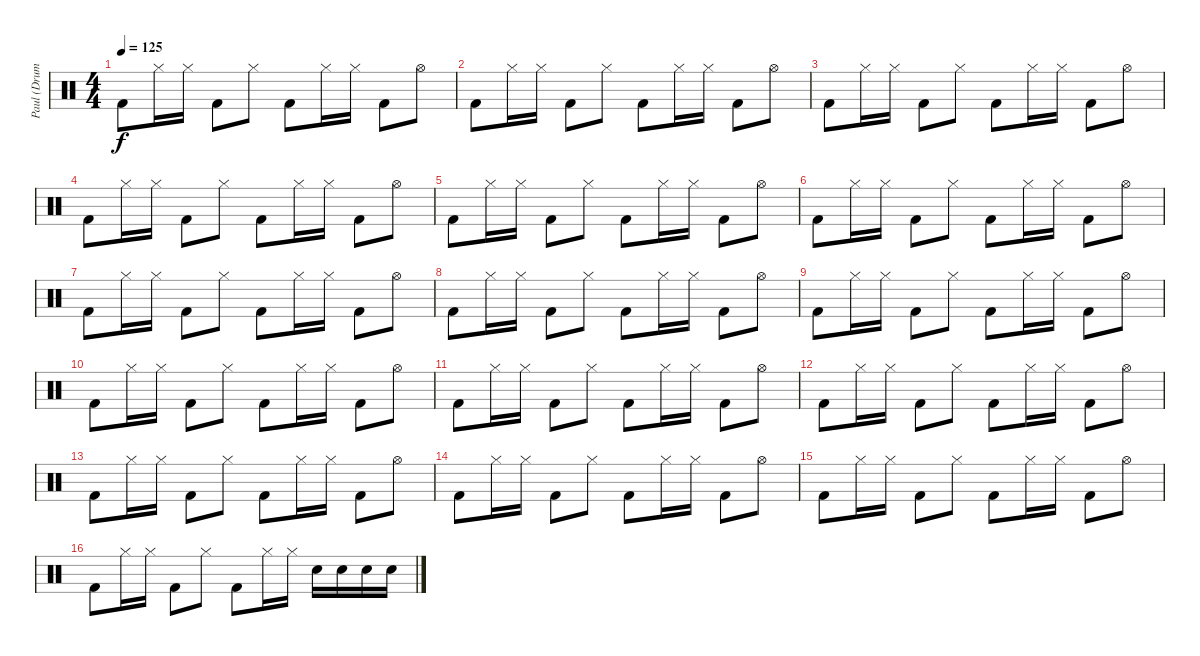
\track ("Paul (Drums)" "Paul (Drum") {instrument percussion}
\staff {score}
\articulation defaults
\ts (4 4)
\section ("" "")
\tempo 125
\clef neutral
\ks c "Kick (hit) 2".8{dy f} "Hi-Hat (closed)".16 "Hi-Hat (closed)".16 "Kick (hit) 2".8 "Hi-Hat (closed)".8 "Kick (hit) 2".8 "Hi-Hat (closed)".16 "Hi-Hat (closed)".16 "Kick (hit) 2".8 "Hi-Hat (open)".8
|
"Kick (hit) 2".8 "Hi-Hat (closed)".16 "Hi-Hat (closed)".16 "Kick (hit) 2".8 "Hi-Hat (closed)".8 "Kick (hit) 2".8 "Hi-Hat (closed)".16 "Hi-Hat (closed)".16 "Kick (hit) 2".8 "Hi-Hat (open)".8 |
"Kick (hit) 2".8 "Hi-Hat (closed)".16 "Hi-Hat (closed)".16 "Kick (hit) 2".8 "Hi-Hat (closed)".8 "Kick (hit) 2".8 "Hi-Hat (closed)".16 "Hi-Hat (closed)".16 "Kick (hit) 2".8 "Hi-Hat (open)".8 |
"Kick (hit) 2".8 "Hi-Hat (closed)".16 "Hi-Hat (closed)".16 "Kick (hit) 2".8 "Hi-Hat (closed)".8 "Kick (hit) 2".8 "Hi-Hat (closed)".16 "Hi-Hat (closed)".16 "Kick (hit) 2".8 "Hi-Hat (open)".8 |
"Kick (hit) 2".8 "Hi-Hat (closed)".16 "Hi-Hat (closed)".16 "Kick (hit) 2".8 "Hi-Hat (closed)".8 "Kick (hit) 2".8 "Hi-Hat (closed)".16 "Hi-Hat (closed)".16 "Kick (hit) 2".8 "Hi-Hat (open)".8 |
"Kick (hit) 2".8 "Hi-Hat (closed)".16 "Hi-Hat (closed)".16 "Kick (hit) 2".8 "Hi-Hat (closed)".8 "Kick (hit) 2".8 "Hi-Hat (closed)".16 "Hi-Hat (closed)".16 "Kick (hit) 2".8 "Hi-Hat (open)".8 |
"Kick (hit) 2".8 "Hi-Hat (closed)".16 "Hi-Hat (closed)".16 "Kick (hit) 2".8 "Hi-Hat (closed)".8 "Kick (hit) 2".8 "Hi-Hat (closed)".16 "Hi-Hat (closed)".16 "Kick (hit) 2".8 "Hi-Hat (open)".8 |
"Kick (hit) 2".8 "Hi-Hat (closed)".16 "Hi-Hat (closed)".16 "Kick (hit) 2".8 "Hi-Hat (closed)".8 "Kick (hit) 2".8 "Hi-Hat (closed)".16 "Hi-Hat (closed)".16 "Kick (hit) 2".8 "Hi-Hat (open)".8 |
"Kick (hit) 2".8 "Hi-Hat (closed)".16 "Hi-Hat (closed)".16 "Kick (hit) 2".8 "Hi-Hat (closed)".8 "Kick (hit) 2".8 "Hi-Hat (closed)".16 "Hi-Hat (closed)".16 "Kick (hit) 2".8 "Hi-Hat (open)".8 |
"Kick (hit) 2".8 "Hi-Hat (closed)".16 "Hi-Hat (closed)".16 "Kick (hit) 2".8 "Hi-Hat (closed)".8 "Kick (hit) 2".8 "Hi-Hat (closed)".16 "Hi-Hat (closed)".16 "Kick (hit) 2".8 "Hi-Hat (open)".8 |
"Kick (hit) 2".8 "Hi-Hat (closed)".16 "Hi-Hat (closed)".16 "Kick (hit) 2".8 "Hi-Hat (closed)".8 "Kick (hit) 2".8 "Hi-Hat (closed)".16 "Hi-Hat (closed)".16 "Kick (hit) 2".8 "Hi-Hat (open)".8 |
"Kick (hit) 2".8 "Hi-Hat (closed)".16 "Hi-Hat (closed)".16 "Kick (hit) 2".8 "Hi-Hat (closed)".8 "Kick (hit) 2".8 "Hi-Hat (closed)".16 "Hi-Hat (closed)".16 "Kick (hit) 2".8 "Hi-Hat (open)".8 |
"Kick (hit) 2".8 "Hi-Hat (closed)".16 "Hi-Hat (closed)".16 "Kick (hit) 2".8 "Hi-Hat (closed)".8 "Kick (hit) 2".8 "Hi-Hat (closed)".16 "Hi-Hat (closed)".16 "Kick (hit) 2".8 "Hi-Hat (open)".8 |
"Kick (hit) 2".8 "Hi-Hat (closed)".16 "Hi-Hat (closed)".16 "Kick (hit) 2".8 "Hi-Hat (closed)".8 "Kick (hit) 2".8 "Hi-Hat (closed)".16 "Hi-Hat (closed)".16 "Kick (hit) 2".8 "Hi-Hat (open)".8 |
"Kick (hit) 2".8 "Hi-Hat (closed)".16 "Hi-Hat (closed)".16 "Kick (hit) 2".8 "Hi-Hat (closed)".8 "Kick (hit) 2".8 "Hi-Hat (closed)".16 "Hi-Hat (closed)".16 "Kick (hit) 2".8 "Hi-Hat (open)".8 |
"Kick (hit) 2".8 "Hi-Hat (closed)".16 "Hi-Hat (closed)".16 "Kick (hit) 2".8 "Hi-Hat (closed)".8 "Kick (hit) 2".8 "Hi-Hat (closed)".16 "Hi-Hat (closed)".16 "Snare (hit) 2".16 "Snare (hit) 2".16 "Snare (hit) 2".16 "Snare (hit) 2".16
